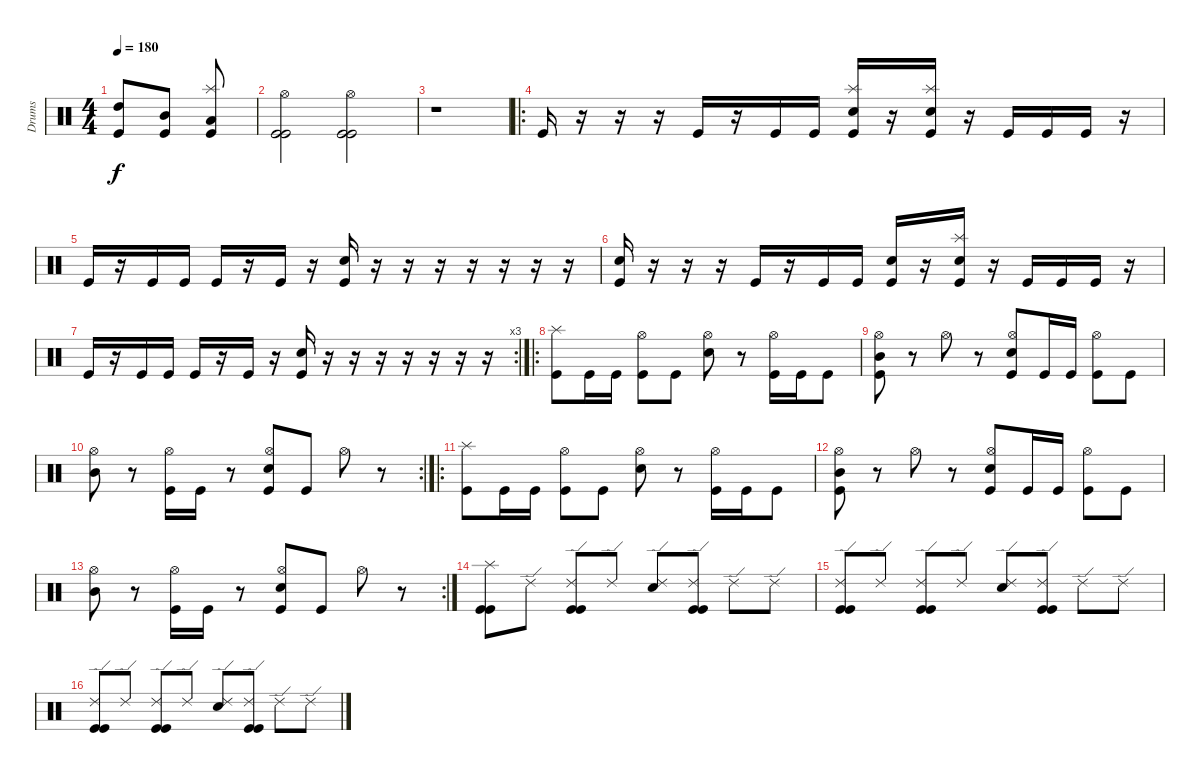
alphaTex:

\track ("Drums" "Drums") {instrument percussion}
\staff {score}
\articulation defaults
\ts (4 4)
\tempo 180
\clef neutral
\ks c
("High Tom (hit)" "Kick (hit)").8{dy f} ("Mid Tom (hit)" "Kick (hit)").8 ("Splash (hit)" "Low Tom (hit)" "Kick (hit)").8 |
("Hi-Hat (open)" "Kick (hit)" "Kick (hit)").2 ("Hi-Hat (open)" "Kick (hit)" "Kick (hit)").2 |
r.1 |
\ro "Kick (hit)".16
r.16 r.16 r.16 "Kick (hit)".16 r.16 "Kick (hit)".16 "Kick (hit)".16 ("Splash (hit)" "Snare (hit) 2" "Kick (hit)").16 r.16 ("Splash (hit)" "Snare (hit) 2" "Kick (hit)").16 r.16 "Kick (hit)".16 "Kick (hit)".16 "Kick (hit)".16 r.16 |
"Kick (hit)".16 r.16 "Kick (hit)".16 "Kick (hit)".16 "Kick (hit)".16 r.16 "Kick (hit)".16 r.16 ("Snare (hit) 2" "Kick (hit)").16 r.16 r.16 r.16 r.16 r.16 r.16 r.16 |
("Snare (hit) 2" "Kick (hit)").16 r.16 r.16 r.16 "Kick (hit)".16 r.16 "Kick (hit)".16 "Kick (hit)".16 ("Snare (hit) 2" "Kick (hit)").16 r.16 ("Splash (hit)" "Snare (hit) 2" "Kick (hit)").16 r.16 "Kick (hit)".16 "Kick (hit)".16 "Kick (hit)".16 r.16 |
\rc 3 "Kick (hit)".16
r.16 "Kick (hit)".16 "Kick (hit)".16 "Kick (hit)".16 r.16 "Kick (hit)".16 r.16 ("Snare (hit) 2" "Kick (hit)").16 r.16 r.16 r.16 r.16 r.16 r.16 r.16 |
\ro
("Splash (hit)" "Kick (hit)").8 "Kick (hit)".16 "Kick (hit)".16 ("Hi-Hat (open)" "Kick (hit)").8 "Kick (hit)".8 ("Hi-Hat (open)" "Snare (hit) 2").8 r.8 ("Hi-Hat (open)" "Kick (hit)").16 "Kick (hit)".16 "Kick (hit)".8 |
("Hi-Hat (open)" "Mid Tom (hit)" "Kick (hit)").8 r.8 "Hi-Hat (open)".8 r.8 ("Hi-Hat (open)" "Snare (hit) 2" "Kick (hit)").8 "Kick (hit)".16 "Kick (hit)".16 ("Hi-Hat (open)" "Kick (hit)").8 "Kick (hit)".8 |
\rc 2
("Hi-Hat (open)" "Mid Tom (hit)").8 r.8 ("Hi-Hat (open)" "Kick (hit)").16 "Kick (hit)".16 r.8 ("Hi-Hat (open)" "Snare (hit) 2" "Kick (hit)").8 "Kick (hit)".8 "Hi-Hat (open)".8 r.8 |
\ro
("Splash (hit)" "Kick (hit)").8 "Kick (hit)".16 "Kick (hit)".16 ("Hi-Hat (open)" "Kick (hit)").8 "Kick (hit)".8 ("Hi-Hat (open)" "Snare (hit) 2").8 r.8 ("Hi-Hat (open)" "Kick (hit)").16 "Kick (hit)".16 "Kick (hit)".8 |
("Hi-Hat (open)" "Mid Tom (hit)" "Kick (hit)").8 r.8 "Hi-Hat (open)".8 r.8 ("Hi-Hat (open)" "Snare (hit) 2" "Kick (hit)").8 "Kick (hit)".16 "Kick (hit)".16 ("Hi-Hat (open)" "Kick (hit)").8 "Kick (hit)".8 |
\rc 2
("Hi-Hat (open)" "Mid Tom (hit)").8 r.8 ("Hi-Hat (open)" "Kick (hit)").16 "Kick (hit)".16 r.8 ("Hi-Hat (open)" "Snare (hit) 2" "Kick (hit)").8 "Kick (hit)".8 "Hi-Hat (open)".8 r.8 |
("Splash (hit)" "Kick (hit)" "Kick (hit)").8 "Ride (edge) 2".8 ("Ride (edge) 2" "Kick (hit)" "Kick (hit)").8 "Ride (edge) 2".8 ("Ride (edge) 2" "Snare (hit) 2").8 ("Ride (edge) 2" "Kick (hit)" "Kick (hit)").8 "Ride (edge) 2".8 "Ride (edge) 2".8 |
("Ride (edge) 2" "Kick (hit)" "Kick (hit)").8 "Ride (edge) 2".8 ("Ride (edge) 2" "Kick (hit)" "Kick (hit)").8 "Ride (edge) 2".8 ("Ride (edge) 2" "Snare (hit) 2").8 ("Ride (edge) 2" "Kick (hit)" "Kick (hit)").8 "Ride (edge) 2".8 "Ride (edge) 2".8 |
("Ride (edge) 2" "Kick (hit)" "Kick (hit)").8 "Ride (edge) 2".8 ("Ride (edge) 2" "Kick (hit)" "Kick (hit)").8 "Ride (edge) 2".8 ("Ride (edge) 2" "Snare (hit) 2").8 ("Ride (edge) 2" "Kick (hit)" "Kick (hit)").8 "Ride (edge) 2".8 "Ride (edge) 2".8
